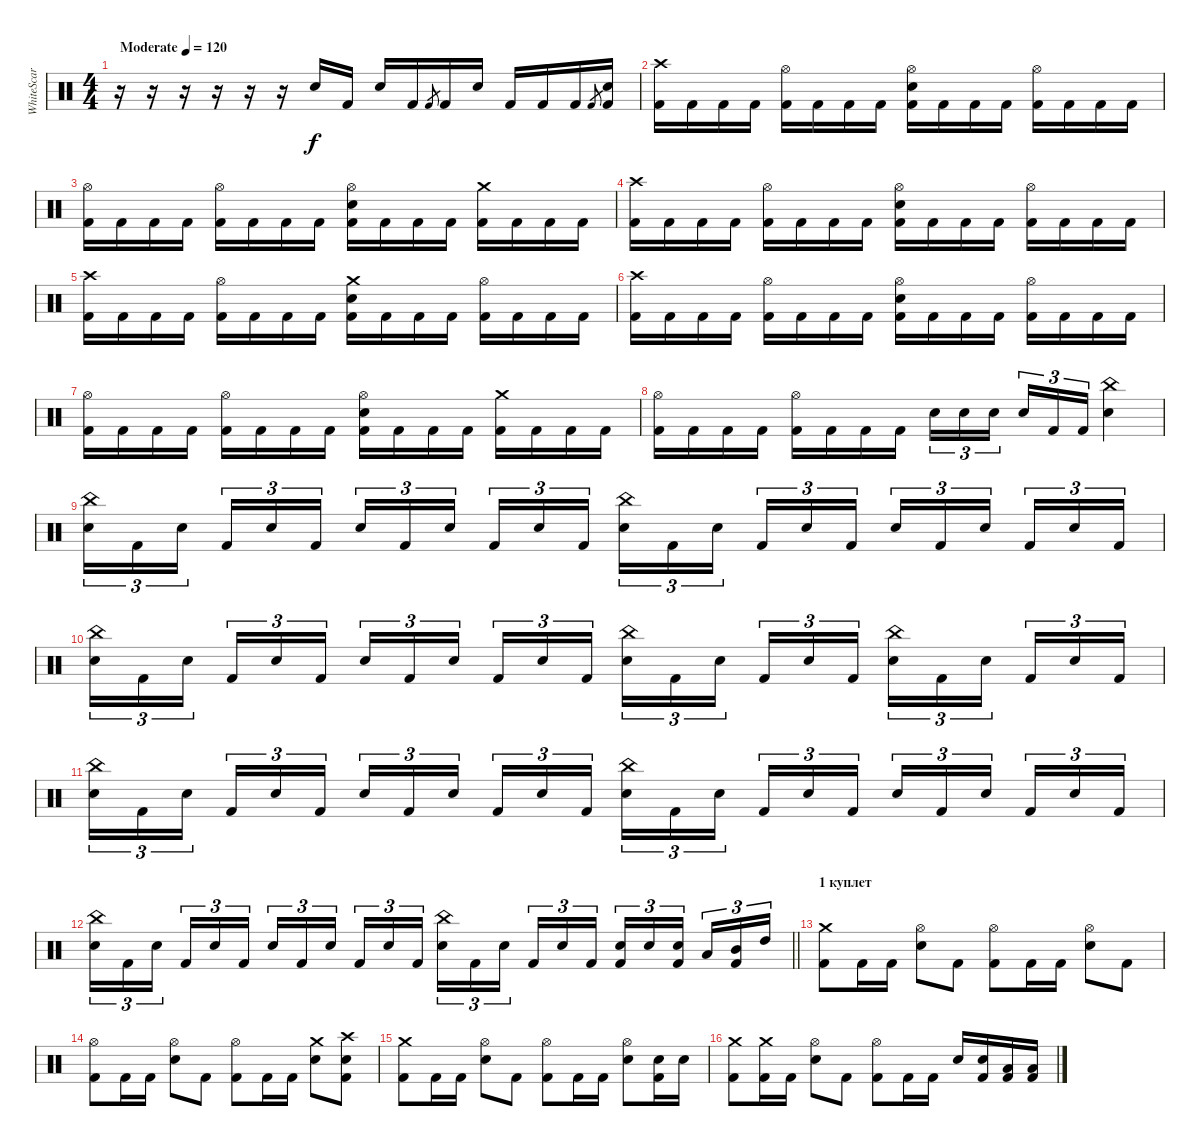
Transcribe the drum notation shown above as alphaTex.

\track ("WhiteScar" "WhiteScar") {instrument percussion}
\staff {score}
\articulation defaults
\ts (4 4)
\tempo (120 "Moderate")
\clef neutral
\ks c
r.16{dy f} r.16 r.16 r.16 r.16 r.16 "Snare (hit) 2".16 "Kick (hit) 2".16 "Snare (hit) 2".16 "Kick (hit) 2".16 "Kick (hit) 2".8{gr} "Kick (hit) 2".16 "Snare (hit) 2".16 "Kick (hit) 2".16 "Kick (hit) 2".16 "Kick (hit) 2".16 "Kick (hit) 2".8{gr} ("Snare (hit) 2" "Kick (hit) 2").16 |
("Crash high (hit)" "Kick (hit) 2").16 "Kick (hit) 2".16 "Kick (hit) 2".16 "Kick (hit) 2".16 ("Hi-Hat (open)" "Kick (hit) 2").16 "Kick (hit) 2".16 "Kick (hit) 2".16 "Kick (hit) 2".16 ("Hi-Hat (open)" "Snare (hit) 2" "Kick (hit) 2").16 "Kick (hit) 2".16 "Kick (hit) 2".16 "Kick (hit) 2".16 ("Hi-Hat (open)" "Kick (hit) 2").16 "Kick (hit) 2".16 "Kick (hit) 2".16 "Kick (hit) 2".16 |
("Hi-Hat (open)" "Kick (hit) 2").16 "Kick (hit) 2".16 "Kick (hit) 2".16 "Kick (hit) 2".16 ("Hi-Hat (open)" "Kick (hit) 2").16 "Kick (hit) 2".16 "Kick (hit) 2".16 "Kick (hit) 2".16 ("Hi-Hat (open)" "Snare (hit) 2" "Kick (hit) 2").16 "Kick (hit) 2".16 "Kick (hit) 2".16 "Kick (hit) 2".16 ("Crash medium (hit)" "Kick (hit) 2").16 "Kick (hit) 2".16 "Kick (hit) 2".16 "Kick (hit) 2".16 |
("Crash high (hit)" "Kick (hit) 2").16 "Kick (hit) 2".16 "Kick (hit) 2".16 "Kick (hit) 2".16 ("Hi-Hat (open)" "Kick (hit) 2").16 "Kick (hit) 2".16 "Kick (hit) 2".16 "Kick (hit) 2".16 ("Hi-Hat (open)" "Snare (hit) 2" "Kick (hit) 2").16 "Kick (hit) 2".16 "Kick (hit) 2".16 "Kick (hit) 2".16 ("Hi-Hat (open)" "Kick (hit) 2").16 "Kick (hit) 2".16 "Kick (hit) 2".16 "Kick (hit) 2".16 |
("Crash high (hit)" "Kick (hit) 2").16 "Kick (hit) 2".16 "Kick (hit) 2".16 "Kick (hit) 2".16 ("Hi-Hat (open)" "Kick (hit) 2").16 "Kick (hit) 2".16 "Kick (hit) 2".16 "Kick (hit) 2".16 ("Crash medium (hit)" "Snare (hit) 2" "Kick (hit) 2").16 "Kick (hit) 2".16 "Kick (hit) 2".16 "Kick (hit) 2".16 ("Hi-Hat (open)" "Kick (hit) 2").16 "Kick (hit) 2".16 "Kick (hit) 2".16 "Kick (hit) 2".16 |
("Crash high (hit)" "Kick (hit) 2").16 "Kick (hit) 2".16 "Kick (hit) 2".16 "Kick (hit) 2".16 ("Hi-Hat (open)" "Kick (hit) 2").16 "Kick (hit) 2".16 "Kick (hit) 2".16 "Kick (hit) 2".16 ("Hi-Hat (open)" "Snare (hit) 2" "Kick (hit) 2").16 "Kick (hit) 2".16 "Kick (hit) 2".16 "Kick (hit) 2".16 ("Hi-Hat (open)" "Kick (hit) 2").16 "Kick (hit) 2".16 "Kick (hit) 2".16 "Kick (hit) 2".16 |
("Hi-Hat (open)" "Kick (hit) 2").16 "Kick (hit) 2".16 "Kick (hit) 2".16 "Kick (hit) 2".16 ("Hi-Hat (open)" "Kick (hit) 2").16 "Kick (hit) 2".16 "Kick (hit) 2".16 "Kick (hit) 2".16 ("Hi-Hat (open)" "Snare (hit) 2" "Kick (hit) 2").16 "Kick (hit) 2".16 "Kick (hit) 2".16 "Kick (hit) 2".16 ("Crash medium (hit)" "Kick (hit) 2").16 "Kick (hit) 2".16 "Kick (hit) 2".16 "Kick (hit) 2".16 |
("Hi-Hat (open)" "Kick (hit) 2").16 "Kick (hit) 2".16 "Kick (hit) 2".16 "Kick (hit) 2".16 ("Hi-Hat (open)" "Kick (hit) 2").16 "Kick (hit) 2".16 "Kick (hit) 2".16 "Kick (hit) 2".16 "Snare (hit) 2".16{tu (3 2)} "Snare (hit) 2".16{tu (3 2)} "Snare (hit) 2".16{tu (3 2) beam splitsecondary} "Snare (hit) 2".16{tu (3 2)} "Kick (hit) 2".16{tu (3 2)} "Kick (hit) 2".16{tu (3 2)} ("China (hit)" "Snare (hit) 2").4 |
("China (hit)" "Snare (hit) 2").16{tu (3 2)} "Kick (hit) 2".16{tu (3 2)} "Snare (hit) 2".16{tu (3 2) beam splitsecondary} "Kick (hit) 2".16{tu (3 2)} "Snare (hit) 2".16{tu (3 2)} "Kick (hit) 2".16{tu (3 2)} "Snare (hit) 2".16{tu (3 2)} "Kick (hit) 2".16{tu (3 2)} "Snare (hit) 2".16{tu (3 2) beam splitsecondary} "Kick (hit) 2".16{tu (3 2)} "Snare (hit) 2".16{tu (3 2)} "Kick (hit) 2".16{tu (3 2)} ("China (hit)" "Snare (hit) 2").16{tu (3 2)} "Kick (hit) 2".16{tu (3 2)} "Snare (hit) 2".16{tu (3 2) beam splitsecondary} "Kick (hit) 2".16{tu (3 2)} "Snare (hit) 2".16{tu (3 2)} "Kick (hit) 2".16{tu (3 2)} "Snare (hit) 2".16{tu (3 2)} "Kick (hit) 2".16{tu (3 2)} "Snare (hit) 2".16{tu (3 2) beam splitsecondary} "Kick (hit) 2".16{tu (3 2)} "Snare (hit) 2".16{tu (3 2)} "Kick (hit) 2".16{tu (3 2)} |
("China (hit)" "Snare (hit) 2").16{tu (3 2)} "Kick (hit) 2".16{tu (3 2)} "Snare (hit) 2".16{tu (3 2) beam splitsecondary} "Kick (hit) 2".16{tu (3 2)} "Snare (hit) 2".16{tu (3 2)} "Kick (hit) 2".16{tu (3 2)} "Snare (hit) 2".16{tu (3 2)} "Kick (hit) 2".16{tu (3 2)} "Snare (hit) 2".16{tu (3 2) beam splitsecondary} "Kick (hit) 2".16{tu (3 2)} "Snare (hit) 2".16{tu (3 2)} "Kick (hit) 2".16{tu (3 2)} ("China (hit)" "Snare (hit) 2").16{tu (3 2)} "Kick (hit) 2".16{tu (3 2)} "Snare (hit) 2".16{tu (3 2) beam splitsecondary} "Kick (hit) 2".16{tu (3 2)} "Snare (hit) 2".16{tu (3 2)} "Kick (hit) 2".16{tu (3 2)} ("China (hit)" "Snare (hit) 2").16{tu (3 2)} "Kick (hit) 2".16{tu (3 2)} "Snare (hit) 2".16{tu (3 2) beam splitsecondary} "Kick (hit) 2".16{tu (3 2)} "Snare (hit) 2".16{tu (3 2)} "Kick (hit) 2".16{tu (3 2)} |
("China (hit)" "Snare (hit) 2").16{tu (3 2)} "Kick (hit) 2".16{tu (3 2)} "Snare (hit) 2".16{tu (3 2) beam splitsecondary} "Kick (hit) 2".16{tu (3 2)} "Snare (hit) 2".16{tu (3 2)} "Kick (hit) 2".16{tu (3 2)} "Snare (hit) 2".16{tu (3 2)} "Kick (hit) 2".16{tu (3 2)} "Snare (hit) 2".16{tu (3 2) beam splitsecondary} "Kick (hit) 2".16{tu (3 2)} "Snare (hit) 2".16{tu (3 2)} "Kick (hit) 2".16{tu (3 2)} ("China (hit)" "Snare (hit) 2").16{tu (3 2)} "Kick (hit) 2".16{tu (3 2)} "Snare (hit) 2".16{tu (3 2) beam splitsecondary} "Kick (hit) 2".16{tu (3 2)} "Snare (hit) 2".16{tu (3 2)} "Kick (hit) 2".16{tu (3 2)} "Snare (hit) 2".16{tu (3 2)} "Kick (hit) 2".16{tu (3 2)} "Snare (hit) 2".16{tu (3 2) beam splitsecondary} "Kick (hit) 2".16{tu (3 2)} "Snare (hit) 2".16{tu (3 2)} "Kick (hit) 2".16{tu (3 2)} |
\barLineRight lightlight
("China (hit)" "Snare (hit) 2").16{tu (3 2)} "Kick (hit) 2".16{tu (3 2)} "Snare (hit) 2".16{tu (3 2) beam splitsecondary} "Kick (hit) 2".16{tu (3 2)} "Snare (hit) 2".16{tu (3 2)} "Kick (hit) 2".16{tu (3 2)} "Snare (hit) 2".16{tu (3 2)} "Kick (hit) 2".16{tu (3 2)} "Snare (hit) 2".16{tu (3 2) beam splitsecondary} "Kick (hit) 2".16{tu (3 2)} "Snare (hit) 2".16{tu (3 2)} "Kick (hit) 2".16{tu (3 2)} ("China (hit)" "Snare (hit) 2").16{tu (3 2)} "Kick (hit) 2".16{tu (3 2)} "Snare (hit) 2".16{tu (3 2) beam splitsecondary} "Kick (hit) 2".16{tu (3 2)} "Snare (hit) 2".16{tu (3 2)} "Kick (hit) 2".16{tu (3 2)} ("Snare (hit) 2" "Kick (hit) 2").16{tu (3 2)} "Snare (hit) 2".16{tu (3 2)} ("Snare (hit) 2" "Kick (hit) 2").16{tu (3 2) beam splitsecondary} "Low Tom (hit)".16{tu (3 2)} ("Mid Tom (hit)" "Kick (hit) 2").16{tu (3 2)} "High Tom (hit)".16{tu (3 2)} |
\section ("" "1 куплет")
("Crash medium (hit)" "Kick (hit) 2").8 "Kick (hit) 2".16 "Kick (hit) 2".16 ("Hi-Hat (open)" "Snare (hit) 2").8 "Kick (hit) 2".8 ("Hi-Hat (open)" "Kick (hit) 2").8 "Kick (hit) 2".16 "Kick (hit) 2".16 ("Hi-Hat (open)" "Snare (hit) 2").8 "Kick (hit) 2".8 |
("Hi-Hat (open)" "Kick (hit) 2").8 "Kick (hit) 2".16 "Kick (hit) 2".16 ("Hi-Hat (open)" "Snare (hit) 2").8 "Kick (hit) 2".8 ("Hi-Hat (open)" "Kick (hit) 2").8 "Kick (hit) 2".16 "Kick (hit) 2".16 ("Crash medium (hit)" "Snare (hit) 2").8 ("Crash high (hit)" "Snare (hit) 2" "Kick (hit) 2").8 |
("Crash medium (hit)" "Kick (hit) 2").8 "Kick (hit) 2".16 "Kick (hit) 2".16 ("Hi-Hat (open)" "Snare (hit) 2").8 "Kick (hit) 2".8 ("Hi-Hat (open)" "Kick (hit) 2").8 "Kick (hit) 2".16 "Kick (hit) 2".16 ("Hi-Hat (open)" "Snare (hit) 2").8 ("Snare (hit) 2" "Kick (hit) 2").16 "Snare (hit) 2".16 |
("Crash medium (hit)" "Kick (hit) 2").8 ("Crash medium (hit)" "Kick (hit) 2").16 "Kick (hit) 2".16 ("Hi-Hat (open)" "Snare (hit) 2").8 "Kick (hit) 2".8 ("Hi-Hat (open)" "Kick (hit) 2").8 "Kick (hit) 2".16 "Kick (hit) 2".16 "Snare (hit) 2".16 ("Snare (hit) 2" "Kick (hit) 2").16 ("Low Tom (hit)" "Kick (hit) 2").16 ("Low Tom (hit)" "Kick (hit) 2").16
